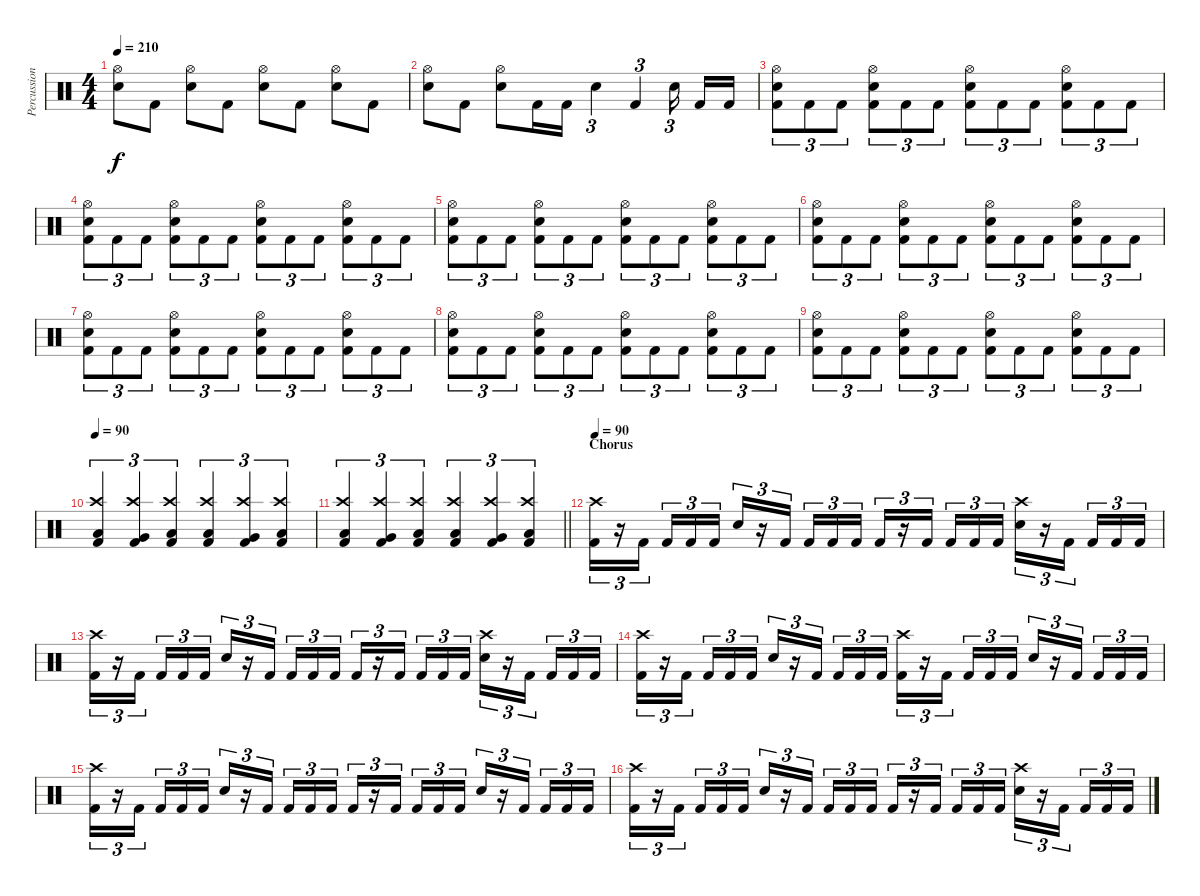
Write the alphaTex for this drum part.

\track ("Percussion" "Percussion") {instrument percussion}
\staff {score}
\articulation defaults
\ts (4 4)
\tempo 210
\clef neutral
\ks c
("Hi-Hat (open)" "Snare (hit) 2").8{dy f} "Kick (hit) 2".8 ("Hi-Hat (open)" "Snare (hit) 2").8 "Kick (hit) 2".8 ("Hi-Hat (open)" "Snare (hit) 2").8 "Kick (hit) 2".8 ("Hi-Hat (open)" "Snare (hit) 2").8 "Kick (hit) 2".8 |
("Hi-Hat (open)" "Snare (hit) 2").8 "Kick (hit) 2".8 ("Hi-Hat (open)" "Snare (hit) 2").8 "Kick (hit) 2".16 "Kick (hit) 2".16 "Snare (hit) 2".4{tu (3 2)} "Kick (hit) 2".4{tu (3 2)} "Snare (hit) 2".16{tu (3 2) beam splitsecondary} "Kick (hit) 2".16 "Kick (hit) 2".16 |
("Hi-Hat (open)" "Snare (hit) 2" "Kick (hit) 2").8{tu (3 2)} "Kick (hit) 2".8{tu (3 2)} "Kick (hit) 2".8{tu (3 2)} ("Hi-Hat (open)" "Snare (hit) 2" "Kick (hit) 2").8{tu (3 2)} "Kick (hit) 2".8{tu (3 2)} "Kick (hit) 2".8{tu (3 2)} ("Hi-Hat (open)" "Snare (hit) 2" "Kick (hit) 2").8{tu (3 2)} "Kick (hit) 2".8{tu (3 2)} "Kick (hit) 2".8{tu (3 2)} ("Hi-Hat (open)" "Snare (hit) 2" "Kick (hit) 2").8{tu (3 2)} "Kick (hit) 2".8{tu (3 2)} "Kick (hit) 2".8{tu (3 2)} |
("Hi-Hat (open)" "Snare (hit) 2" "Kick (hit) 2").8{tu (3 2)} "Kick (hit) 2".8{tu (3 2)} "Kick (hit) 2".8{tu (3 2)} ("Hi-Hat (open)" "Snare (hit) 2" "Kick (hit) 2").8{tu (3 2)} "Kick (hit) 2".8{tu (3 2)} "Kick (hit) 2".8{tu (3 2)} ("Hi-Hat (open)" "Snare (hit) 2" "Kick (hit) 2").8{tu (3 2)} "Kick (hit) 2".8{tu (3 2)} "Kick (hit) 2".8{tu (3 2)} ("Hi-Hat (open)" "Snare (hit) 2" "Kick (hit) 2").8{tu (3 2)} "Kick (hit) 2".8{tu (3 2)} "Kick (hit) 2".8{tu (3 2)} |
("Hi-Hat (open)" "Snare (hit) 2" "Kick (hit) 2").8{tu (3 2)} "Kick (hit) 2".8{tu (3 2)} "Kick (hit) 2".8{tu (3 2)} ("Hi-Hat (open)" "Snare (hit) 2" "Kick (hit) 2").8{tu (3 2)} "Kick (hit) 2".8{tu (3 2)} "Kick (hit) 2".8{tu (3 2)} ("Hi-Hat (open)" "Snare (hit) 2" "Kick (hit) 2").8{tu (3 2)} "Kick (hit) 2".8{tu (3 2)} "Kick (hit) 2".8{tu (3 2)} ("Hi-Hat (open)" "Snare (hit) 2" "Kick (hit) 2").8{tu (3 2)} "Kick (hit) 2".8{tu (3 2)} "Kick (hit) 2".8{tu (3 2)} |
("Hi-Hat (open)" "Snare (hit) 2" "Kick (hit) 2").8{tu (3 2)} "Kick (hit) 2".8{tu (3 2)} "Kick (hit) 2".8{tu (3 2)} ("Hi-Hat (open)" "Snare (hit) 2" "Kick (hit) 2").8{tu (3 2)} "Kick (hit) 2".8{tu (3 2)} "Kick (hit) 2".8{tu (3 2)} ("Hi-Hat (open)" "Snare (hit) 2" "Kick (hit) 2").8{tu (3 2)} "Kick (hit) 2".8{tu (3 2)} "Kick (hit) 2".8{tu (3 2)} ("Hi-Hat (open)" "Snare (hit) 2" "Kick (hit) 2").8{tu (3 2)} "Kick (hit) 2".8{tu (3 2)} "Kick (hit) 2".8{tu (3 2)} |
("Hi-Hat (open)" "Snare (hit) 2" "Kick (hit) 2").8{tu (3 2)} "Kick (hit) 2".8{tu (3 2)} "Kick (hit) 2".8{tu (3 2)} ("Hi-Hat (open)" "Snare (hit) 2" "Kick (hit) 2").8{tu (3 2)} "Kick (hit) 2".8{tu (3 2)} "Kick (hit) 2".8{tu (3 2)} ("Hi-Hat (open)" "Snare (hit) 2" "Kick (hit) 2").8{tu (3 2)} "Kick (hit) 2".8{tu (3 2)} "Kick (hit) 2".8{tu (3 2)} ("Hi-Hat (open)" "Snare (hit) 2" "Kick (hit) 2").8{tu (3 2)} "Kick (hit) 2".8{tu (3 2)} "Kick (hit) 2".8{tu (3 2)} |
("Hi-Hat (open)" "Snare (hit) 2" "Kick (hit) 2").8{tu (3 2)} "Kick (hit) 2".8{tu (3 2)} "Kick (hit) 2".8{tu (3 2)} ("Hi-Hat (open)" "Snare (hit) 2" "Kick (hit) 2").8{tu (3 2)} "Kick (hit) 2".8{tu (3 2)} "Kick (hit) 2".8{tu (3 2)} ("Hi-Hat (open)" "Snare (hit) 2" "Kick (hit) 2").8{tu (3 2)} "Kick (hit) 2".8{tu (3 2)} "Kick (hit) 2".8{tu (3 2)} ("Hi-Hat (open)" "Snare (hit) 2" "Kick (hit) 2").8{tu (3 2)} "Kick (hit) 2".8{tu (3 2)} "Kick (hit) 2".8{tu (3 2)} |
("Hi-Hat (open)" "Snare (hit) 2" "Kick (hit) 2").8{tu (3 2)} "Kick (hit) 2".8{tu (3 2)} "Kick (hit) 2".8{tu (3 2)} ("Hi-Hat (open)" "Snare (hit) 2" "Kick (hit) 2").8{tu (3 2)} "Kick (hit) 2".8{tu (3 2)} "Kick (hit) 2".8{tu (3 2)} ("Hi-Hat (open)" "Snare (hit) 2" "Kick (hit) 2").8{tu (3 2)} "Kick (hit) 2".8{tu (3 2)} "Kick (hit) 2".8{tu (3 2)} ("Hi-Hat (open)" "Snare (hit) 2" "Kick (hit) 2").8{tu (3 2)} "Kick (hit) 2".8{tu (3 2)} "Kick (hit) 2".8{tu (3 2)} |
\tempo 90
("Crash high (hit)" "Low Tom (hit)" "Kick (hit) 2").4{tu (3 2)} ("Crash high (hit)" "Very Low Tom (hit)" "Kick (hit) 2").4{tu (3 2)} ("Crash high (hit)" "Low Floor Tom (hit)" "Kick (hit) 2").4{tu (3 2)} ("Crash high (hit)" "Low Tom (hit)" "Kick (hit) 2").4{tu (3 2)} ("Crash high (hit)" "Very Low Tom (hit)" "Kick (hit) 2").4{tu (3 2)} ("Crash high (hit)" "Low Floor Tom (hit)" "Kick (hit) 2").4{tu (3 2)} |
\barLineRight lightlight
("Crash high (hit)" "Low Tom (hit)" "Kick (hit) 2").4{tu (3 2)} ("Crash high (hit)" "Very Low Tom (hit)" "Kick (hit) 2").4{tu (3 2)} ("Crash high (hit)" "Low Floor Tom (hit)" "Kick (hit) 2").4{tu (3 2)} ("Crash high (hit)" "Low Tom (hit)" "Kick (hit) 2").4{tu (3 2)} ("Crash high (hit)" "Very Low Tom (hit)" "Kick (hit) 2").4{tu (3 2)} ("Crash high (hit)" "Low Floor Tom (hit)" "Kick (hit) 2").4{tu (3 2)} |
\section ("" "Chorus")
\tempo 90
("Crash high (hit)" "Kick (hit) 2").16{tu (3 2)} r.16{tu (3 2)} "Kick (hit) 2".16{tu (3 2) beam splitsecondary} "Kick (hit) 2".16{tu (3 2)} "Kick (hit) 2".16{tu (3 2)} "Kick (hit) 2".16{tu (3 2)} "Snare (hit) 2".16{tu (3 2)} r.16{tu (3 2)} "Kick (hit) 2".16{tu (3 2) beam splitsecondary} "Kick (hit) 2".16{tu (3 2)} "Kick (hit) 2".16{tu (3 2)} "Kick (hit) 2".16{tu (3 2)} "Kick (hit) 2".16{tu (3 2)} r.16{tu (3 2)} "Kick (hit) 2".16{tu (3 2) beam splitsecondary} "Kick (hit) 2".16{tu (3 2)} "Kick (hit) 2".16{tu (3 2)} "Kick (hit) 2".16{tu (3 2)} ("Crash high (hit)" "Snare (hit) 2").16{tu (3 2)} r.16{tu (3 2)} "Kick (hit) 2".16{tu (3 2) beam splitsecondary} "Kick (hit) 2".16{tu (3 2)} "Kick (hit) 2".16{tu (3 2)} "Kick (hit) 2".16{tu (3 2)} |
("Crash high (hit)" "Kick (hit) 2").16{tu (3 2)} r.16{tu (3 2)} "Kick (hit) 2".16{tu (3 2) beam splitsecondary} "Kick (hit) 2".16{tu (3 2)} "Kick (hit) 2".16{tu (3 2)} "Kick (hit) 2".16{tu (3 2)} "Snare (hit) 2".16{tu (3 2)} r.16{tu (3 2)} "Kick (hit) 2".16{tu (3 2) beam splitsecondary} "Kick (hit) 2".16{tu (3 2)} "Kick (hit) 2".16{tu (3 2)} "Kick (hit) 2".16{tu (3 2)} "Kick (hit) 2".16{tu (3 2)} r.16{tu (3 2)} "Kick (hit) 2".16{tu (3 2) beam splitsecondary} "Kick (hit) 2".16{tu (3 2)} "Kick (hit) 2".16{tu (3 2)} "Kick (hit) 2".16{tu (3 2)} ("Crash high (hit)" "Snare (hit) 2").16{tu (3 2)} r.16{tu (3 2)} "Kick (hit) 2".16{tu (3 2) beam splitsecondary} "Kick (hit) 2".16{tu (3 2)} "Kick (hit) 2".16{tu (3 2)} "Kick (hit) 2".16{tu (3 2)} |
("Crash high (hit)" "Kick (hit) 2").16{tu (3 2)} r.16{tu (3 2)} "Kick (hit) 2".16{tu (3 2) beam splitsecondary} "Kick (hit) 2".16{tu (3 2)} "Kick (hit) 2".16{tu (3 2)} "Kick (hit) 2".16{tu (3 2)} "Snare (hit) 2".16{tu (3 2)} r.16{tu (3 2)} "Kick (hit) 2".16{tu (3 2) beam splitsecondary} "Kick (hit) 2".16{tu (3 2)} "Kick (hit) 2".16{tu (3 2)} "Kick (hit) 2".16{tu (3 2)} ("Crash high (hit)" "Kick (hit) 2").16{tu (3 2)} r.16{tu (3 2)} "Kick (hit) 2".16{tu (3 2) beam splitsecondary} "Kick (hit) 2".16{tu (3 2)} "Kick (hit) 2".16{tu (3 2)} "Kick (hit) 2".16{tu (3 2)} "Snare (hit) 2".16{tu (3 2)} r.16{tu (3 2)} "Kick (hit) 2".16{tu (3 2) beam splitsecondary} "Kick (hit) 2".16{tu (3 2)} "Kick (hit) 2".16{tu (3 2)} "Kick (hit) 2".16{tu (3 2)} |
("Crash high (hit)" "Kick (hit) 2").16{tu (3 2)} r.16{tu (3 2)} "Kick (hit) 2".16{tu (3 2) beam splitsecondary} "Kick (hit) 2".16{tu (3 2)} "Kick (hit) 2".16{tu (3 2)} "Kick (hit) 2".16{tu (3 2)} "Snare (hit) 2".16{tu (3 2)} r.16{tu (3 2)} "Kick (hit) 2".16{tu (3 2) beam splitsecondary} "Kick (hit) 2".16{tu (3 2)} "Kick (hit) 2".16{tu (3 2)} "Kick (hit) 2".16{tu (3 2)} "Kick (hit) 2".16{tu (3 2)} r.16{tu (3 2)} "Kick (hit) 2".16{tu (3 2) beam splitsecondary} "Kick (hit) 2".16{tu (3 2)} "Kick (hit) 2".16{tu (3 2)} "Kick (hit) 2".16{tu (3 2)} "Snare (hit) 2".16{tu (3 2)} r.16{tu (3 2)} "Kick (hit) 2".16{tu (3 2) beam splitsecondary} "Kick (hit) 2".16{tu (3 2)} "Kick (hit) 2".16{tu (3 2)} "Kick (hit) 2".16{tu (3 2)} |
("Crash high (hit)" "Kick (hit) 2").16{tu (3 2)} r.16{tu (3 2)} "Kick (hit) 2".16{tu (3 2) beam splitsecondary} "Kick (hit) 2".16{tu (3 2)} "Kick (hit) 2".16{tu (3 2)} "Kick (hit) 2".16{tu (3 2)} "Snare (hit) 2".16{tu (3 2)} r.16{tu (3 2)} "Kick (hit) 2".16{tu (3 2) beam splitsecondary} "Kick (hit) 2".16{tu (3 2)} "Kick (hit) 2".16{tu (3 2)} "Kick (hit) 2".16{tu (3 2)} "Kick (hit) 2".16{tu (3 2)} r.16{tu (3 2)} "Kick (hit) 2".16{tu (3 2) beam splitsecondary} "Kick (hit) 2".16{tu (3 2)} "Kick (hit) 2".16{tu (3 2)} "Kick (hit) 2".16{tu (3 2)} ("Crash high (hit)" "Snare (hit) 2").16{tu (3 2)} r.16{tu (3 2)} "Kick (hit) 2".16{tu (3 2) beam splitsecondary} "Kick (hit) 2".16{tu (3 2)} "Kick (hit) 2".16{tu (3 2)} "Kick (hit) 2".16{tu (3 2)}
